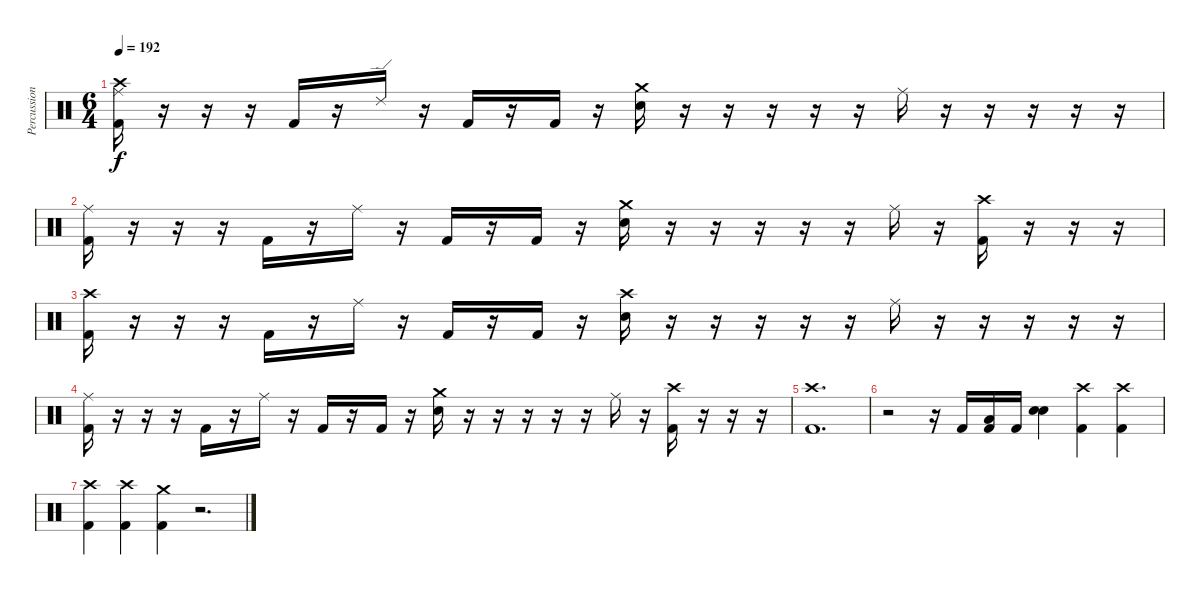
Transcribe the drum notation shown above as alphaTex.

\track ("Percussion" "Percussion") {instrument percussion}
\staff {score}
\articulation defaults
\ts (6 4)
\tempo 192
\clef neutral
\ks c
("Crash high (hit)" "Ride (middle)" "Kick (hit) 2").16{dy f} r.16 r.16 r.16 "Kick (hit) 2".16 r.16 "Ride (edge) 2".16 r.16 "Kick (hit) 2".16 r.16 "Kick (hit) 2".16 r.16 ("Crash medium (hit)" "Snare (hit) 2").16 r.16 r.16 r.16 r.16 r.16 "Ride (middle)".16 r.16 r.16 r.16 r.16 r.16 |
("Ride (middle)" "Kick (hit) 2").16 r.16 r.16 r.16 "Kick (hit) 2".16 r.16 "Ride (middle)".16 r.16 "Kick (hit) 2".16 r.16 "Kick (hit) 2".16 r.16 ("Crash medium (hit)" "Snare (hit) 2").16 r.16 r.16 r.16 r.16 r.16 "Ride (middle)".16 r.16 ("Crash high (hit)" "Kick (hit) 2").16 r.16 r.16 r.16 |
("Crash high (hit)" "Kick (hit) 2").16 r.16 r.16 r.16 "Kick (hit) 2".16 r.16 "Ride (middle)".16 r.16 "Kick (hit) 2".16 r.16 "Kick (hit) 2".16 r.16 ("Crash high (hit)" "Snare (hit) 2").16 r.16 r.16 r.16 r.16 r.16 "Ride (middle)".16 r.16 r.16 r.16 r.16 r.16 |
("Ride (middle)" "Kick (hit) 2").16 r.16 r.16 r.16 "Kick (hit) 2".16 r.16 "Ride (middle)".16 r.16 "Kick (hit) 2".16 r.16 "Kick (hit) 2".16 r.16 ("Crash medium (hit)" "Snare (hit) 2").16 r.16 r.16 r.16 r.16 r.16 "Ride (middle)".16 r.16 ("Crash high (hit)" "Kick (hit) 2").16 r.16 r.16 r.16 |
("Crash high (hit)" "Kick (hit) 2").1{d} |
r.2 r.16 "Kick (hit) 2".16 ("Low Tom (hit)" "Kick (hit) 2").16 "Kick (hit) 2".16 ("Snare (hit) 2" "Snare (hit) 2").4 ("Crash high (hit)" "Kick (hit) 2").4 ("Crash high (hit)" "Kick (hit) 2").4 |
("Crash high (hit)" "Kick (hit) 2").4 ("Crash high (hit)" "Kick (hit) 2").4 ("Crash medium (hit)" "Kick (hit) 2").4 r.2{d}
